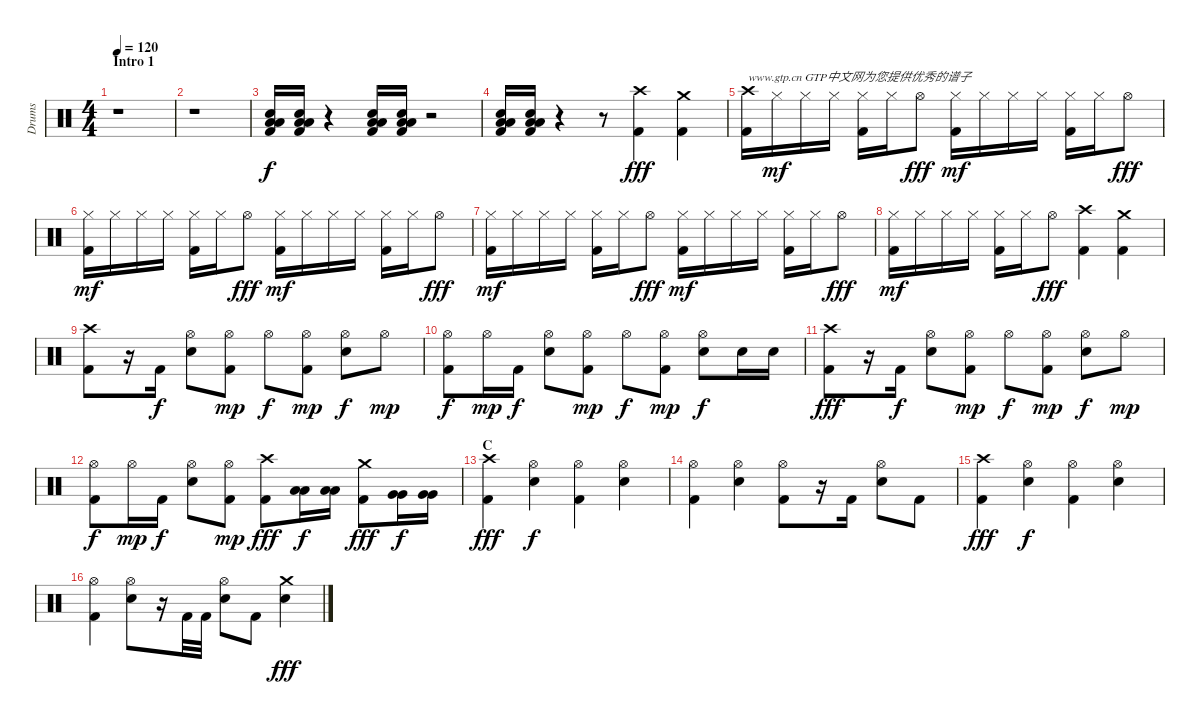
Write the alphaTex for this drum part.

\track ("Drums" "Drums") {instrument percussion}
\staff {score}
\articulation defaults
\ts (4 4)
\section ("" "Intro 1")
\tempo 120
\clef neutral
\ks c
r.1{dy f} |
r.1 |
("Kick (hit) 2" "Electric Snare (hit)" "Low Floor Tom (hit)" "Low Floor Tom (hit)").16 ("Kick (hit) 2" "Electric Snare (hit)" "Low Floor Tom (hit)" "Low Floor Tom (hit)").16 r.4 ("Kick (hit) 2" "Electric Snare (hit)" "Low Floor Tom (hit)" "Low Floor Tom (hit)").16 ("Kick (hit) 2" "Electric Snare (hit)" "Low Floor Tom (hit)" "Low Floor Tom (hit)").16 r.2 |
("Kick (hit) 2" "Electric Snare (hit)" "Low Floor Tom (hit)" "Low Floor Tom (hit)").16 ("Kick (hit) 2" "Electric Snare (hit)" "Low Floor Tom (hit)" "Low Floor Tom (hit)").16 r.4 r.8 ("Kick (hit) 2" "Crash high (hit)").4{dy fff} ("Kick (hit) 2" "Crash medium (hit)").4 |
("Kick (hit) 2" "Crash high (hit)").16{txt "www.gtp.cn GTP中文网为您提供优秀的谱子"} "Hi-Hat (closed)".16{dy mf} "Hi-Hat (closed)".16 "Hi-Hat (closed)".16 ("Kick (hit) 2" "Hi-Hat (closed)").16 "Hi-Hat (closed)".16 "Hi-Hat (open)".8{dy fff} ("Kick (hit) 2" "Hi-Hat (closed)").16{dy mf} "Hi-Hat (closed)".16 "Hi-Hat (closed)".16 "Hi-Hat (closed)".16 ("Kick (hit) 2" "Hi-Hat (closed)").16 "Hi-Hat (closed)".16 "Hi-Hat (open)".8{dy fff} |
("Kick (hit) 2" "Hi-Hat (closed)").16{dy mf} "Hi-Hat (closed)".16 "Hi-Hat (closed)".16 "Hi-Hat (closed)".16 ("Kick (hit) 2" "Hi-Hat (closed)").16 "Hi-Hat (closed)".16 "Hi-Hat (open)".8{dy fff} ("Kick (hit) 2" "Hi-Hat (closed)").16{dy mf} "Hi-Hat (closed)".16 "Hi-Hat (closed)".16 "Hi-Hat (closed)".16 ("Kick (hit) 2" "Hi-Hat (closed)").16 "Hi-Hat (closed)".16 "Hi-Hat (open)".8{dy fff} |
("Kick (hit) 2" "Hi-Hat (closed)").16{dy mf} "Hi-Hat (closed)".16 "Hi-Hat (closed)".16 "Hi-Hat (closed)".16 ("Kick (hit) 2" "Hi-Hat (closed)").16 "Hi-Hat (closed)".16 "Hi-Hat (open)".8{dy fff} ("Kick (hit) 2" "Hi-Hat (closed)").16{dy mf} "Hi-Hat (closed)".16 "Hi-Hat (closed)".16 "Hi-Hat (closed)".16 ("Kick (hit) 2" "Hi-Hat (closed)").16 "Hi-Hat (closed)".16 "Hi-Hat (open)".8{dy fff} |
("Kick (hit) 2" "Hi-Hat (closed)").16{dy mf} "Hi-Hat (closed)".16 "Hi-Hat (closed)".16 "Hi-Hat (closed)".16 ("Kick (hit) 2" "Hi-Hat (closed)").16 "Hi-Hat (closed)".16 "Hi-Hat (open)".8{dy fff} ("Kick (hit) 2" "Crash high (hit)").4 ("Kick (hit) 2" "Crash medium (hit)").4 |
("Kick (hit) 2" "Crash high (hit)").8 r.16 "Kick (hit) 2".16{dy f} ("Electric Snare (hit)" "Hi-Hat (open)").8 ("Kick (hit) 2" "Hi-Hat (open)").8{dy mp} "Hi-Hat (open)".8{dy f} ("Kick (hit) 2" "Hi-Hat (open)").8{dy mp} ("Electric Snare (hit)" "Hi-Hat (open)").8{dy f} "Hi-Hat (open)".8{dy mp} |
("Kick (hit) 2" "Hi-Hat (open)").8{dy f} "Hi-Hat (open)".16{dy mp} "Kick (hit) 2".16{dy f} ("Electric Snare (hit)" "Hi-Hat (open)").8 ("Kick (hit) 2" "Hi-Hat (open)").8{dy mp} "Hi-Hat (open)".8{dy f} ("Kick (hit) 2" "Hi-Hat (open)").8{dy mp} ("Electric Snare (hit)" "Hi-Hat (open)").8{dy f} "Electric Snare (hit)".16 "Electric Snare (hit)".16 |
("Kick (hit) 2" "Crash high (hit)").8{dy fff} r.16 "Kick (hit) 2".16{dy f} ("Electric Snare (hit)" "Hi-Hat (open)").8 ("Kick (hit) 2" "Hi-Hat (open)").8{dy mp} "Hi-Hat (open)".8{dy f} ("Kick (hit) 2" "Hi-Hat (open)").8{dy mp} ("Electric Snare (hit)" "Hi-Hat (open)").8{dy f} "Hi-Hat (open)".8{dy mp} |
("Kick (hit) 2" "Hi-Hat (open)").8{dy f} "Hi-Hat (open)".16{dy mp} "Kick (hit) 2".16{dy f} ("Electric Snare (hit)" "Hi-Hat (open)").8 ("Kick (hit) 2" "Hi-Hat (open)").8{dy mp} ("Kick (hit) 2" "Crash high (hit)").8{dy fff} ("Low Tom (hit)" "Low Tom (hit)").16{dy f} ("Low Tom (hit)" "Low Tom (hit)").16 ("Kick (hit) 2" "Crash medium (hit)").8{dy fff} ("Very Low Tom (hit)" "Very Low Tom (hit)").16{dy f} ("Very Low Tom (hit)" "Very Low Tom (hit)").16 |
\section ("" "C")
("Kick (hit) 2" "Crash high (hit)").4{dy fff} ("Electric Snare (hit)" "Hi-Hat (open)").4{dy f} ("Kick (hit) 2" "Hi-Hat (open)").4 ("Electric Snare (hit)" "Hi-Hat (open)").4 |
("Kick (hit) 2" "Hi-Hat (open)").4 ("Electric Snare (hit)" "Hi-Hat (open)").4 ("Kick (hit) 2" "Hi-Hat (open)").8 r.16 "Kick (hit) 2".16 ("Electric Snare (hit)" "Hi-Hat (open)").8 "Kick (hit) 2".8 |
("Kick (hit) 2" "Crash high (hit)").4{dy fff} ("Electric Snare (hit)" "Hi-Hat (open)").4{dy f} ("Kick (hit) 2" "Hi-Hat (open)").4 ("Electric Snare (hit)" "Hi-Hat (open)").4 |
("Kick (hit) 2" "Hi-Hat (open)").4 ("Electric Snare (hit)" "Hi-Hat (open)").8 r.16 "Kick (hit) 2".32 "Kick (hit) 2".32 ("Electric Snare (hit)" "Hi-Hat (open)").8 "Kick (hit) 2".8 ("Electric Snare (hit)" "Crash medium (hit)").4{dy fff}
